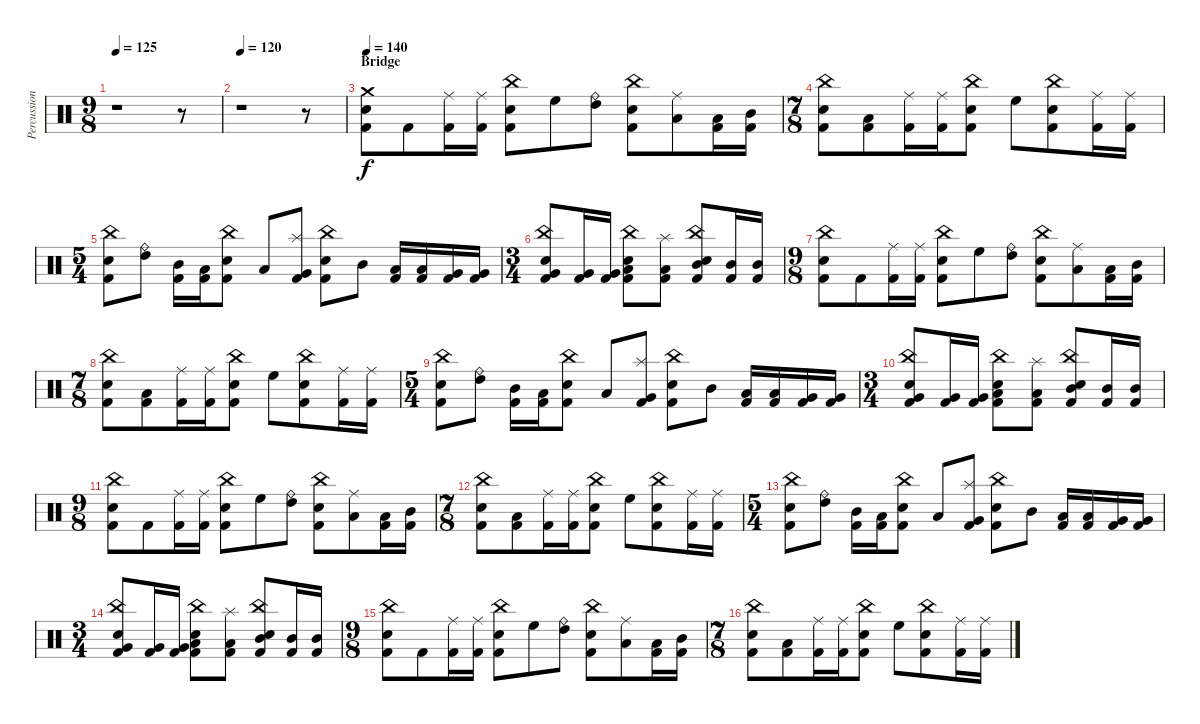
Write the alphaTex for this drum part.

\track ("Percussion" "Percussion") {instrument percussion}
\staff {score}
\articulation defaults
\ts (9 8)
\tempo 125
\clef neutral
\ks c
r.1{dy f} r.8 |
\tempo 120
r.1 r.8 |
\section ("" "Bridge")
\tempo 140
("Crash medium (hit)" "Electric Snare (hit)" "Kick (hit) 2").8 "Kick (hit) 2".8 ("Ride (middle)" "Kick (hit) 2").16 ("Ride (middle)" "Kick (hit) 2").16 ("China (hit)" "Electric Snare (hit)" "Kick (hit) 2").8 "High Floor Tom (hit)".8 ("Ride (bell)" "High Tom (hit)").8 ("China (hit)" "Electric Snare (hit)" "Kick (hit) 2").8 ("Ride (middle)" "Low Tom (hit)").8 ("Low Tom (hit)" "Kick (hit) 2").16 ("Mid Tom (hit)" "Kick (hit) 2").16 |
\ts (7 8)
("China (hit)" "Electric Snare (hit)" "Kick (hit) 2").8 ("Low Tom (hit)" "Kick (hit) 2").8 ("Ride (middle)" "Kick (hit) 2").16 ("Ride (middle)" "Kick (hit) 2").16 ("China (hit)" "Electric Snare (hit)" "Kick (hit) 2").8 "High Floor Tom (hit)".8 ("China (hit)" "Electric Snare (hit)" "Kick (hit) 2").8 ("Ride (middle)" "Kick (hit) 2").16 ("Ride (middle)" "Kick (hit) 2").16 |
\ts (5 4)
("China (hit)" "Electric Snare (hit)" "Kick (hit) 2").8 ("Ride (bell)" "High Tom (hit)").8 ("Mid Tom (hit)" "Kick (hit) 2").16 ("Low Tom (hit)" "Kick (hit) 2").16 ("China (hit)" "Electric Snare (hit)" "Kick (hit) 2").8 "Low Tom (hit)".8 ("Splash (hit)" "Very Low Tom (hit)" "Kick (hit) 2").8 ("China (hit)" "Electric Snare (hit)" "Kick (hit) 2").8 "Mid Tom (hit)".8 ("Low Tom (hit)" "Kick (hit) 2").16 ("Low Tom (hit)" "Kick (hit) 2").16 ("Very Low Tom (hit)" "Kick (hit) 2").16 ("Very Low Tom (hit)" "Kick (hit) 2").16 |
\ts (3 4)
("China (hit)" "Very Low Tom (hit)" "Electric Snare (hit)" "Kick (hit) 2").8 ("Very Low Tom (hit)" "Kick (hit) 2").16 ("Very Low Tom (hit)" "Kick (hit) 2").16 ("China (hit)" "Low Tom (hit)" "Electric Snare (hit)" "Kick (hit) 2").8 ("Splash (hit)" "Low Tom (hit)" "Kick (hit) 2").8 ("China (hit)" "Mid Tom (hit)" "Electric Snare (hit)" "Kick (hit) 2").8 ("Mid Tom (hit)" "Kick (hit) 2").16 ("Mid Tom (hit)" "Kick (hit) 2").16 |
\ts (9 8)
("China (hit)" "Electric Snare (hit)" "Kick (hit) 2").8 "Kick (hit) 2".8 ("Ride (middle)" "Kick (hit) 2").16 ("Ride (middle)" "Kick (hit) 2").16 ("China (hit)" "Electric Snare (hit)" "Kick (hit) 2").8 "High Floor Tom (hit)".8 ("Ride (bell)" "High Tom (hit)").8 ("China (hit)" "Electric Snare (hit)" "Kick (hit) 2").8 ("Ride (middle)" "Low Tom (hit)").8 ("Low Tom (hit)" "Kick (hit) 2").16 ("Mid Tom (hit)" "Kick (hit) 2").16 |
\ts (7 8)
("China (hit)" "Electric Snare (hit)" "Kick (hit) 2").8 ("Low Tom (hit)" "Kick (hit) 2").8 ("Ride (middle)" "Kick (hit) 2").16 ("Ride (middle)" "Kick (hit) 2").16 ("China (hit)" "Electric Snare (hit)" "Kick (hit) 2").8 "High Floor Tom (hit)".8 ("China (hit)" "Electric Snare (hit)" "Kick (hit) 2").8 ("Ride (middle)" "Kick (hit) 2").16 ("Ride (middle)" "Kick (hit) 2").16 |
\ts (5 4)
("China (hit)" "Electric Snare (hit)" "Kick (hit) 2").8 ("Ride (bell)" "High Tom (hit)").8 ("Mid Tom (hit)" "Kick (hit) 2").16 ("Low Tom (hit)" "Kick (hit) 2").16 ("China (hit)" "Electric Snare (hit)" "Kick (hit) 2").8 "Low Tom (hit)".8 ("Splash (hit)" "Very Low Tom (hit)" "Kick (hit) 2").8 ("China (hit)" "Electric Snare (hit)" "Kick (hit) 2").8 "Mid Tom (hit)".8 ("Low Tom (hit)" "Kick (hit) 2").16 ("Low Tom (hit)" "Kick (hit) 2").16 ("Very Low Tom (hit)" "Kick (hit) 2").16 ("Very Low Tom (hit)" "Kick (hit) 2").16 |
\ts (3 4)
("China (hit)" "Very Low Tom (hit)" "Electric Snare (hit)" "Kick (hit) 2").8 ("Very Low Tom (hit)" "Kick (hit) 2").16 ("Very Low Tom (hit)" "Kick (hit) 2").16 ("China (hit)" "Low Tom (hit)" "Electric Snare (hit)" "Kick (hit) 2").8 ("Splash (hit)" "Low Tom (hit)" "Kick (hit) 2").8 ("China (hit)" "Mid Tom (hit)" "Electric Snare (hit)" "Kick (hit) 2").8 ("Mid Tom (hit)" "Kick (hit) 2").16 ("Mid Tom (hit)" "Kick (hit) 2").16 |
\ts (9 8)
("China (hit)" "Electric Snare (hit)" "Kick (hit) 2").8 "Kick (hit) 2".8 ("Ride (middle)" "Kick (hit) 2").16 ("Ride (middle)" "Kick (hit) 2").16 ("China (hit)" "Electric Snare (hit)" "Kick (hit) 2").8 "High Floor Tom (hit)".8 ("Ride (bell)" "High Tom (hit)").8 ("China (hit)" "Electric Snare (hit)" "Kick (hit) 2").8 ("Ride (middle)" "Low Tom (hit)").8 ("Low Tom (hit)" "Kick (hit) 2").16 ("Mid Tom (hit)" "Kick (hit) 2").16 |
\ts (7 8)
("China (hit)" "Electric Snare (hit)" "Kick (hit) 2").8 ("Low Tom (hit)" "Kick (hit) 2").8 ("Ride (middle)" "Kick (hit) 2").16 ("Ride (middle)" "Kick (hit) 2").16 ("China (hit)" "Electric Snare (hit)" "Kick (hit) 2").8 "High Floor Tom (hit)".8 ("China (hit)" "Electric Snare (hit)" "Kick (hit) 2").8 ("Ride (middle)" "Kick (hit) 2").16 ("Ride (middle)" "Kick (hit) 2").16 |
\ts (5 4)
("China (hit)" "Electric Snare (hit)" "Kick (hit) 2").8 ("Ride (bell)" "High Tom (hit)").8 ("Mid Tom (hit)" "Kick (hit) 2").16 ("Low Tom (hit)" "Kick (hit) 2").16 ("China (hit)" "Electric Snare (hit)" "Kick (hit) 2").8 "Low Tom (hit)".8 ("Splash (hit)" "Very Low Tom (hit)" "Kick (hit) 2").8 ("China (hit)" "Electric Snare (hit)" "Kick (hit) 2").8 "Mid Tom (hit)".8 ("Low Tom (hit)" "Kick (hit) 2").16 ("Low Tom (hit)" "Kick (hit) 2").16 ("Very Low Tom (hit)" "Kick (hit) 2").16 ("Very Low Tom (hit)" "Kick (hit) 2").16 |
\ts (3 4)
("China (hit)" "Very Low Tom (hit)" "Electric Snare (hit)" "Kick (hit) 2").8 ("Very Low Tom (hit)" "Kick (hit) 2").16 ("Very Low Tom (hit)" "Kick (hit) 2").16 ("China (hit)" "Low Tom (hit)" "Electric Snare (hit)" "Kick (hit) 2").8 ("Splash (hit)" "Low Tom (hit)" "Kick (hit) 2").8 ("China (hit)" "Mid Tom (hit)" "Electric Snare (hit)" "Kick (hit) 2").8 ("Mid Tom (hit)" "Kick (hit) 2").16 ("Mid Tom (hit)" "Kick (hit) 2").16 |
\ts (9 8)
("China (hit)" "Electric Snare (hit)" "Kick (hit) 2").8 "Kick (hit) 2".8 ("Ride (middle)" "Kick (hit) 2").16 ("Ride (middle)" "Kick (hit) 2").16 ("China (hit)" "Electric Snare (hit)" "Kick (hit) 2").8 "High Floor Tom (hit)".8 ("Ride (bell)" "High Tom (hit)").8 ("China (hit)" "Electric Snare (hit)" "Kick (hit) 2").8 ("Ride (middle)" "Low Tom (hit)").8 ("Low Tom (hit)" "Kick (hit) 2").16 ("Mid Tom (hit)" "Kick (hit) 2").16 |
\ts (7 8)
("China (hit)" "Electric Snare (hit)" "Kick (hit) 2").8 ("Low Tom (hit)" "Kick (hit) 2").8 ("Ride (middle)" "Kick (hit) 2").16 ("Ride (middle)" "Kick (hit) 2").16 ("China (hit)" "Electric Snare (hit)" "Kick (hit) 2").8 "High Floor Tom (hit)".8 ("China (hit)" "Electric Snare (hit)" "Kick (hit) 2").8 ("Ride (middle)" "Kick (hit) 2").16 ("Ride (middle)" "Kick (hit) 2").16
